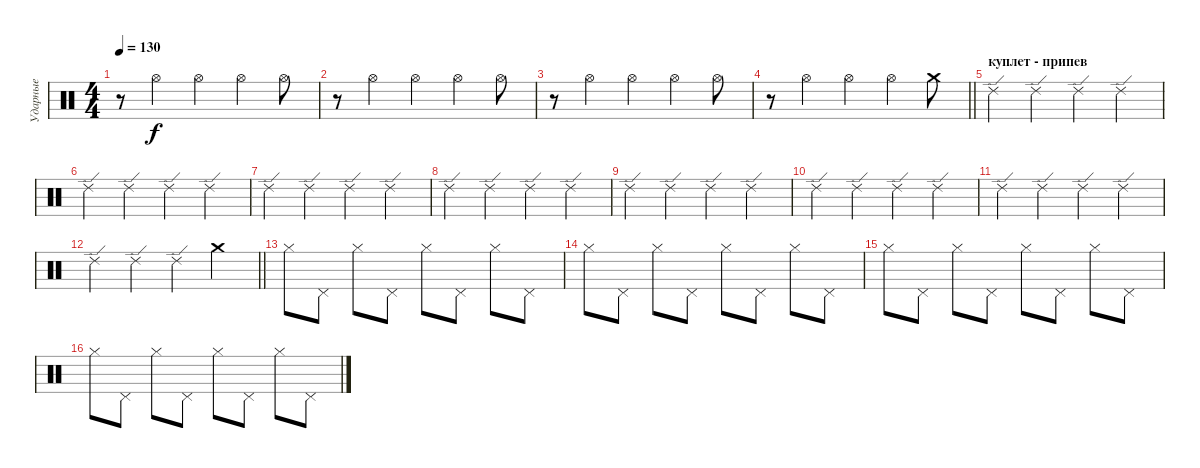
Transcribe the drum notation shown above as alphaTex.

\track ("Ударные" "Ударные") {instrument percussion}
\staff {score}
\articulation defaults
\ts (4 4)
\tempo 130
\clef neutral
\ks c
r.8{dy f} "Hi-Hat (open)".4 "Hi-Hat (open)".4 "Hi-Hat (open)".4 "Hi-Hat (open)".8 |
r.8 "Hi-Hat (open)".4 "Hi-Hat (open)".4 "Hi-Hat (open)".4 "Hi-Hat (open)".8 |
r.8 "Hi-Hat (open)".4 "Hi-Hat (open)".4 "Hi-Hat (open)".4 "Hi-Hat (open)".8 |
\barLineRight lightlight
r.8 "Hi-Hat (open)".4 "Hi-Hat (open)".4 "Hi-Hat (open)".4 "Crash medium (hit)".8 |
\section ("" "куплет - припев")
"Ride (edge) 2".4 "Ride (edge) 2".4 "Ride (edge) 2".4 "Ride (edge) 2".4 |
"Ride (edge) 2".4 "Ride (edge) 2".4 "Ride (edge) 2".4 "Ride (edge) 2".4 |
"Ride (edge) 2".4 "Ride (edge) 2".4 "Ride (edge) 2".4 "Ride (edge) 2".4 |
"Ride (edge) 2".4 "Ride (edge) 2".4 "Ride (edge) 2".4 "Ride (edge) 2".4 |
"Ride (edge) 2".4 "Ride (edge) 2".4 "Ride (edge) 2".4 "Ride (edge) 2".4 |
"Ride (edge) 2".4 "Ride (edge) 2".4 "Ride (edge) 2".4 "Ride (edge) 2".4 |
"Ride (edge) 2".4 "Ride (edge) 2".4 "Ride (edge) 2".4 "Ride (edge) 2".4 |
\barLineRight lightlight "Ride (edge) 2".4 "Ride (edge) 2".4 "Ride (edge) 2".4 "Crash medium (hit)".4
|
"Hi-Hat (closed)".8 "Pedal Hi-Hat (hit)".8 "Hi-Hat (closed)".8 "Pedal Hi-Hat (hit)".8 "Hi-Hat (closed)".8 "Pedal Hi-Hat (hit)".8 "Hi-Hat (closed)".8 "Pedal Hi-Hat (hit)".8 |
"Hi-Hat (closed)".8 "Pedal Hi-Hat (hit)".8 "Hi-Hat (closed)".8 "Pedal Hi-Hat (hit)".8 "Hi-Hat (closed)".8 "Pedal Hi-Hat (hit)".8 "Hi-Hat (closed)".8 "Pedal Hi-Hat (hit)".8 |
"Hi-Hat (closed)".8 "Pedal Hi-Hat (hit)".8 "Hi-Hat (closed)".8 "Pedal Hi-Hat (hit)".8 "Hi-Hat (closed)".8 "Pedal Hi-Hat (hit)".8 "Hi-Hat (closed)".8 "Pedal Hi-Hat (hit)".8 |
"Hi-Hat (closed)".8 "Pedal Hi-Hat (hit)".8 "Hi-Hat (closed)".8 "Pedal Hi-Hat (hit)".8 "Hi-Hat (closed)".8 "Pedal Hi-Hat (hit)".8 "Hi-Hat (closed)".8 "Pedal Hi-Hat (hit)".8
